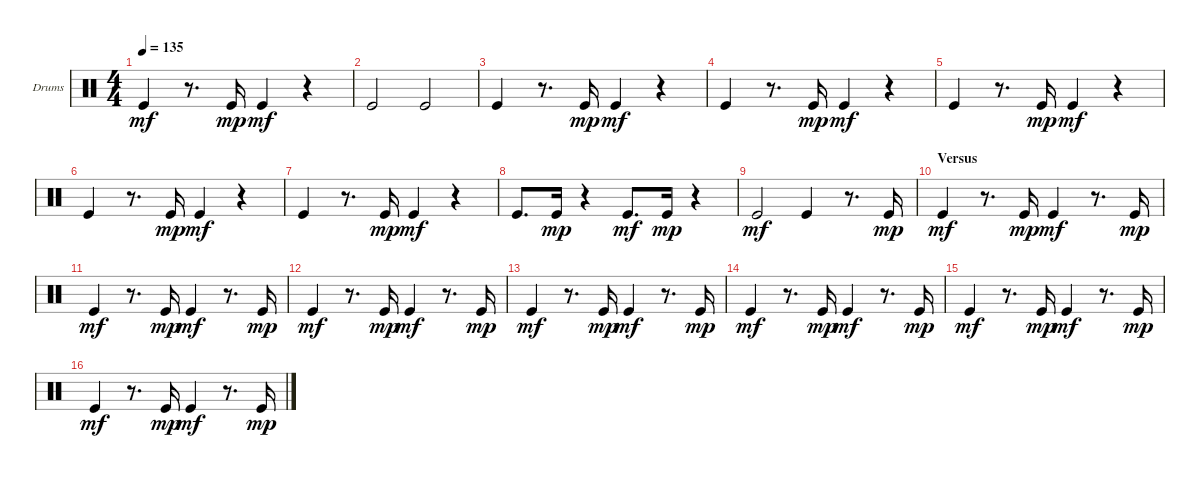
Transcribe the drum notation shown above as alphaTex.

\bracketExtendMode groupsimilarinstruments
\firstSystemTrackNameOrientation horizontal
\otherSystemsTrackNameOrientation horizontal
\track ("Kick" "Drums") {instrument percussion}
\staff {score}
\articulation defaults
\ts (4 4)
\tempo 135
\clef neutral
\ks c "Kick (hit)".4{dy mf}
r.8{d} "Kick (hit)".16{dy mp} "Kick (hit)".4{dy mf} r.4 |
"Kick (hit)".2 "Kick (hit)".2 |
"Kick (hit)".4 r.8{d} "Kick (hit)".16{dy mp} "Kick (hit)".4{dy mf} r.4 |
"Kick (hit)".4 r.8{d} "Kick (hit)".16{dy mp} "Kick (hit)".4{dy mf} r.4 |
"Kick (hit)".4 r.8{d} "Kick (hit)".16{dy mp} "Kick (hit)".4{dy mf} r.4 |
"Kick (hit)".4 r.8{d} "Kick (hit)".16{dy mp} "Kick (hit)".4{dy mf} r.4 |
"Kick (hit)".4 r.8{d} "Kick (hit)".16{dy mp} "Kick (hit)".4{dy mf} r.4 |
"Kick (hit)".8{d} "Kick (hit)".16{dy mp} r.4 "Kick (hit)".8{d dy mf} "Kick (hit)".16{dy mp} r.4 |
"Kick (hit)".2{dy mf} "Kick (hit)".4 r.8{d} "Kick (hit)".16{dy mp} |
\section ("" "Versus")
"Kick (hit)".4{dy mf} r.8{d} "Kick (hit)".16{dy mp} "Kick (hit)".4{dy mf} r.8{d} "Kick (hit)".16{dy mp} |
"Kick (hit)".4{dy mf} r.8{d} "Kick (hit)".16{dy mp} "Kick (hit)".4{dy mf} r.8{d} "Kick (hit)".16{dy mp} |
"Kick (hit)".4{dy mf} r.8{d} "Kick (hit)".16{dy mp} "Kick (hit)".4{dy mf} r.8{d} "Kick (hit)".16{dy mp} |
"Kick (hit)".4{dy mf} r.8{d} "Kick (hit)".16{dy mp} "Kick (hit)".4{dy mf} r.8{d} "Kick (hit)".16{dy mp} |
"Kick (hit)".4{dy mf} r.8{d} "Kick (hit)".16{dy mp} "Kick (hit)".4{dy mf} r.8{d} "Kick (hit)".16{dy mp} |
"Kick (hit)".4{dy mf} r.8{d} "Kick (hit)".16{dy mp} "Kick (hit)".4{dy mf} r.8{d} "Kick (hit)".16{dy mp} |
"Kick (hit)".4{dy mf} r.8{d} "Kick (hit)".16{dy mp} "Kick (hit)".4{dy mf} r.8{d} "Kick (hit)".16{dy mp}
